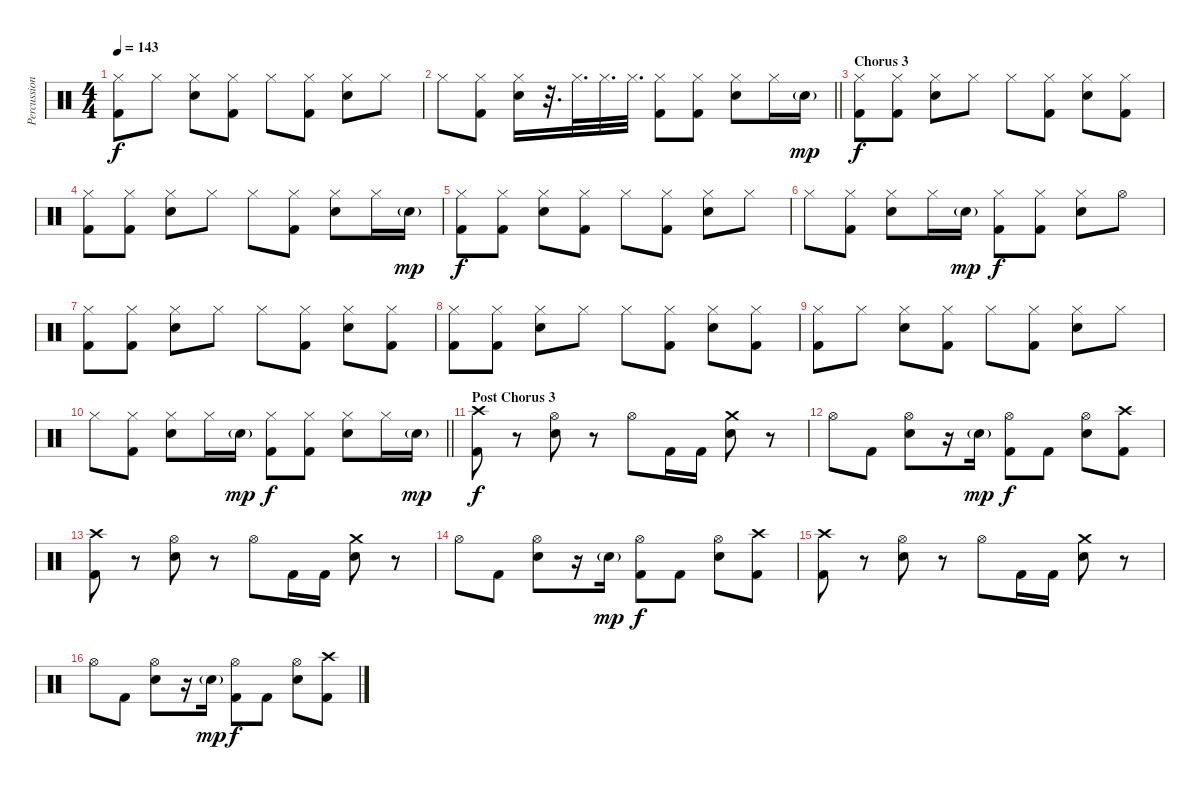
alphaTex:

\track ("Percussion" "Percussion") {instrument percussion}
\staff {score}
\articulation defaults
\ts (4 4)
\tempo 143
\clef neutral
\ks c
("Hi-Hat (closed)" "Kick (hit) 2").8{dy f} "Hi-Hat (closed)".8 ("Hi-Hat (closed)" "Snare (hit) 2").8 ("Hi-Hat (closed)" "Kick (hit) 2").8 "Hi-Hat (closed)".8 ("Hi-Hat (closed)" "Kick (hit) 2").8 ("Hi-Hat (closed)" "Snare (hit) 2").8 "Hi-Hat (closed)".8 |
\barLineRight lightlight "Hi-Hat (closed)".8
("Hi-Hat (closed)" "Kick (hit) 2").8 ("Hi-Hat (closed)" "Snare (hit) 2").16 r.32{d} "Hi-Hat (closed)".32{d} "Hi-Hat (closed)".32{d} "Hi-Hat (closed)".32{d} ("Hi-Hat (closed)" "Kick (hit) 2").8 ("Hi-Hat (closed)" "Kick (hit) 2").8 ("Hi-Hat (closed)" "Snare (hit) 2").8 "Hi-Hat (closed)".16 "Snare (hit) 2"{g}.16{dy mp} |
\section ("" "Chorus 3")
("Hi-Hat (closed)" "Kick (hit) 2").8{dy f} ("Hi-Hat (closed)" "Kick (hit) 2").8 ("Hi-Hat (closed)" "Snare (hit) 2").8 "Hi-Hat (closed)".8 "Hi-Hat (closed)".8 ("Hi-Hat (closed)" "Kick (hit) 2").8 ("Hi-Hat (closed)" "Snare (hit) 2").8 ("Hi-Hat (closed)" "Kick (hit) 2").8 |
("Hi-Hat (closed)" "Kick (hit) 2").8 ("Hi-Hat (closed)" "Kick (hit) 2").8 ("Hi-Hat (closed)" "Snare (hit) 2").8 "Hi-Hat (closed)".8 "Hi-Hat (closed)".8 ("Hi-Hat (closed)" "Kick (hit) 2").8 ("Hi-Hat (closed)" "Snare (hit) 2").8 "Hi-Hat (closed)".16 "Snare (hit) 2"{g}.16{dy mp} |
("Hi-Hat (closed)" "Kick (hit) 2").8{dy f} ("Hi-Hat (closed)" "Kick (hit) 2").8 ("Hi-Hat (closed)" "Snare (hit) 2").8 ("Hi-Hat (closed)" "Kick (hit) 2").8 "Hi-Hat (closed)".8 ("Hi-Hat (closed)" "Kick (hit) 2").8 ("Hi-Hat (closed)" "Snare (hit) 2").8 "Hi-Hat (closed)".8 |
"Hi-Hat (closed)".8 ("Hi-Hat (closed)" "Kick (hit) 2").8 ("Hi-Hat (closed)" "Snare (hit) 2").8 "Hi-Hat (closed)".16 "Snare (hit) 2"{g}.16{dy mp} ("Hi-Hat (closed)" "Kick (hit) 2").8{dy f} ("Hi-Hat (closed)" "Kick (hit) 2").8 ("Hi-Hat (closed)" "Snare (hit) 2").8 "Hi-Hat (open)".8 |
("Hi-Hat (closed)" "Kick (hit) 2").8 ("Hi-Hat (closed)" "Kick (hit) 2").8 ("Hi-Hat (closed)" "Snare (hit) 2").8 "Hi-Hat (closed)".8 "Hi-Hat (closed)".8 ("Hi-Hat (closed)" "Kick (hit) 2").8 ("Hi-Hat (closed)" "Snare (hit) 2").8 ("Hi-Hat (closed)" "Kick (hit) 2").8 |
("Hi-Hat (closed)" "Kick (hit) 2").8 ("Hi-Hat (closed)" "Kick (hit) 2").8 ("Hi-Hat (closed)" "Snare (hit) 2").8 "Hi-Hat (closed)".8 "Hi-Hat (closed)".8 ("Hi-Hat (closed)" "Kick (hit) 2").8 ("Hi-Hat (closed)" "Snare (hit) 2").8 ("Hi-Hat (closed)" "Kick (hit) 2").8 |
("Hi-Hat (closed)" "Kick (hit) 2").8 "Hi-Hat (closed)".8 ("Hi-Hat (closed)" "Snare (hit) 2").8 ("Hi-Hat (closed)" "Kick (hit) 2").8 "Hi-Hat (closed)".8 ("Hi-Hat (closed)" "Kick (hit) 2").8 ("Hi-Hat (closed)" "Snare (hit) 2").8 "Hi-Hat (closed)".8 |
\barLineRight lightlight "Hi-Hat (closed)".8
("Hi-Hat (closed)" "Kick (hit) 2").8 ("Hi-Hat (closed)" "Snare (hit) 2").8 "Hi-Hat (closed)".16 "Snare (hit) 2"{g}.16{dy mp} ("Hi-Hat (closed)" "Kick (hit) 2").8{dy f} ("Hi-Hat (closed)" "Kick (hit) 2").8 ("Hi-Hat (closed)" "Snare (hit) 2").8 "Hi-Hat (closed)".16 "Snare (hit) 2"{g}.16{dy mp} |
\section ("" "Post Chorus 3")
("Crash high (hit)" "Kick (hit) 2").8{dy f} r.8 ("Hi-Hat (open)" "Snare (hit) 2").8 r.8 "Hi-Hat (open)".8 "Kick (hit) 2".16 "Kick (hit) 2".16 ("Crash medium (hit)" "Snare (hit) 2").8 r.8 |
"Hi-Hat (open)".8 "Kick (hit) 2".8 ("Hi-Hat (open)" "Snare (hit) 2").8 r.16 "Snare (hit) 2"{g}.16{dy mp} ("Hi-Hat (open)" "Kick (hit) 2").8{dy f} "Kick (hit) 2".8 ("Hi-Hat (open)" "Snare (hit) 2").8 ("Crash high (hit)" "Kick (hit) 2").8 |
("Crash high (hit)" "Kick (hit) 2").8 r.8 ("Hi-Hat (open)" "Snare (hit) 2").8 r.8 "Hi-Hat (open)".8 "Kick (hit) 2".16 "Kick (hit) 2".16 ("Crash medium (hit)" "Snare (hit) 2").8 r.8 |
"Hi-Hat (open)".8 "Kick (hit) 2".8 ("Hi-Hat (open)" "Snare (hit) 2").8 r.16 "Snare (hit) 2"{g}.16{dy mp} ("Hi-Hat (open)" "Kick (hit) 2").8{dy f} "Kick (hit) 2".8 ("Hi-Hat (open)" "Snare (hit) 2").8 ("Crash high (hit)" "Kick (hit) 2").8 |
("Crash high (hit)" "Kick (hit) 2").8 r.8 ("Hi-Hat (open)" "Snare (hit) 2").8 r.8 "Hi-Hat (open)".8 "Kick (hit) 2".16 "Kick (hit) 2".16 ("Crash medium (hit)" "Snare (hit) 2").8 r.8 |
"Hi-Hat (open)".8 "Kick (hit) 2".8 ("Hi-Hat (open)" "Snare (hit) 2").8 r.16 "Snare (hit) 2"{g}.16{dy mp} ("Hi-Hat (open)" "Kick (hit) 2").8{dy f} "Kick (hit) 2".8 ("Hi-Hat (open)" "Snare (hit) 2").8 ("Crash high (hit)" "Kick (hit) 2").8
